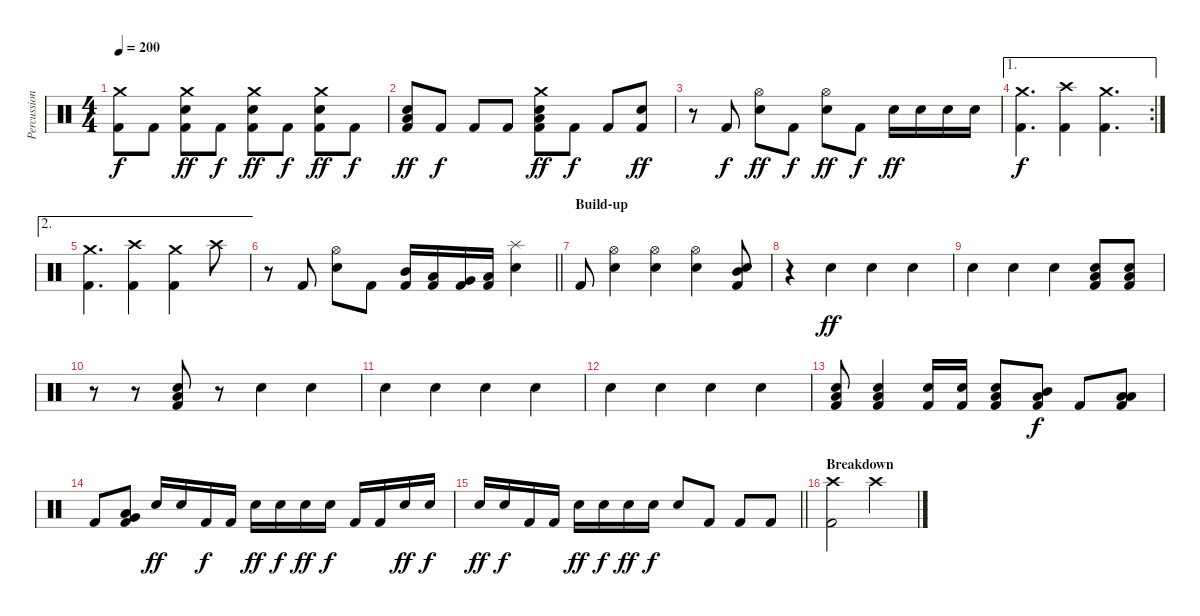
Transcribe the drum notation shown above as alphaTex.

\track ("Percussion" "Percussion") {instrument percussion}
\staff {score}
\articulation defaults
\ts (4 4)
\tempo 200
\clef neutral
\ks c
("Crash medium (hit)" "Kick (hit) 2").8{dy f} "Kick (hit) 2".8 ("Crash medium (hit)" "Snare (hit) 2" "Kick (hit) 2").8{dy ff} "Kick (hit) 2".8{dy f} ("Crash medium (hit)" "Snare (hit) 2" "Kick (hit) 2").8{dy ff} "Kick (hit) 2".8{dy f} ("Crash medium (hit)" "Snare (hit) 2" "Kick (hit) 2").8{dy ff} "Kick (hit) 2".8{dy f} |
("Snare (hit) 2" "Low Floor Tom (hit)" "Kick (hit) 2").8{dy ff} "Kick (hit) 2".8{dy f} "Kick (hit) 2".8 "Kick (hit) 2".8 ("Crash medium (hit)" "Snare (hit) 2" "Low Floor Tom (hit)" "Kick (hit) 2").8{dy ff} "Kick (hit) 2".8{dy f} "Kick (hit) 2".8 ("Snare (hit) 2" "Kick (hit) 2").8{dy ff} |
r.8 "Kick (hit) 2".8{dy f} ("Hi-Hat (open)" "Snare (hit) 2").8{dy ff} "Kick (hit) 2".8{dy f} ("Hi-Hat (open)" "Snare (hit) 2").8{dy ff} "Kick (hit) 2".8{dy f} "Snare (hit) 2".16{dy ff} "Snare (hit) 2".16 "Snare (hit) 2".16 "Snare (hit) 2".16 |
\ae 1
\rc 2
("Crash medium (hit)" "Kick (hit) 2").4{d dy f} ("Crash high (hit)" "Kick (hit) 2").4 ("Crash medium (hit)" "Kick (hit) 2").4{d} |
\ae 2
("Crash medium (hit)" "Kick (hit) 2").4{d} ("Crash high (hit)" "Kick (hit) 2").4 ("Crash medium (hit)" "Kick (hit) 2").4 "Crash high (hit)".8 |
\barLineRight lightlight
r.8 "Kick (hit) 2".8 ("Hi-Hat (open)" "Snare (hit) 2").8 "Kick (hit) 2".8 ("Mid Tom (hit)" "Kick (hit) 2").16 ("Low Tom (hit)" "Kick (hit) 2").16 ("Very Low Tom (hit)" "Kick (hit) 2").16 ("Low Floor Tom (hit)" "Kick (hit) 2").16 ("Splash (hit)" "Snare (hit) 2").4 |
\section ("" "Build-up")
"Kick (hit) 2".8 ("Hi-Hat (open)" "Snare (hit) 2").4 ("Hi-Hat (open)" "Snare (hit) 2").4 ("Hi-Hat (open)" "Snare (hit) 2").4 ("Snare (hit) 2" "Mid Tom (hit)" "Kick (hit) 2").8 |
r.4 "Snare (hit) 2".4{dy ff} "Snare (hit) 2".4 "Snare (hit) 2".4 |
"Snare (hit) 2".4 "Snare (hit) 2".4 "Snare (hit) 2".4 ("Snare (hit) 2" "Low Tom (hit)" "Kick (hit) 2").8 ("Snare (hit) 2" "Low Tom (hit)" "Kick (hit) 2").8 |
r.8 r.8 ("Snare (hit) 2" "Low Tom (hit)" "Kick (hit) 2").8 r.8 "Snare (hit) 2".4 "Snare (hit) 2".4 |
"Snare (hit) 2".4 "Snare (hit) 2".4 "Snare (hit) 2".4 "Snare (hit) 2".4 |
"Snare (hit) 2".4 "Snare (hit) 2".4 "Snare (hit) 2".4 "Snare (hit) 2".4 |
("Snare (hit) 2" "Low Tom (hit)" "Kick (hit) 2").8 ("Snare (hit) 2" "Low Tom (hit)" "Kick (hit) 2").4 ("Snare (hit) 2" "Kick (hit) 2").16 ("Snare (hit) 2" "Kick (hit) 2").16 ("Snare (hit) 2" "Low Tom (hit)" "Kick (hit) 2").8 ("Low Tom (hit)" "Mid Tom (hit)" "Kick (hit) 2").8{dy f} "Kick (hit) 2".8 ("Low Tom (hit)" "Low Tom (hit)" "Kick (hit) 2").8 |
"Kick (hit) 2".8 ("Low Tom (hit)" "Very Low Tom (hit)" "Kick (hit) 2").8 "Snare (hit) 2".16{dy ff} "Snare (hit) 2".16 "Kick (hit) 2".16{dy f} "Kick (hit) 2".16 "Snare (hit) 2".16{dy ff} "Snare (hit) 2".16{dy f} "Snare (hit) 2".16{dy ff} "Snare (hit) 2".16{dy f} "Kick (hit) 2".16 "Kick (hit) 2".16 "Snare (hit) 2".16{dy ff} "Snare (hit) 2".16{dy f} |
\barLineRight lightlight "Snare (hit) 2".16{dy ff} "Snare (hit) 2".16{dy f} "Kick (hit) 2".16 "Kick (hit) 2".16 "Snare (hit) 2".16{dy ff} "Snare (hit) 2".16{dy f} "Snare (hit) 2".16{dy ff} "Snare (hit) 2".16{dy f} "Snare (hit) 2".8 "Kick (hit) 2".8 "Kick (hit) 2".8 "Kick (hit) 2".8
|
\section ("" "Breakdown")
("Crash high (hit)" "Kick (hit) 2").2 "Crash high (hit)".2
